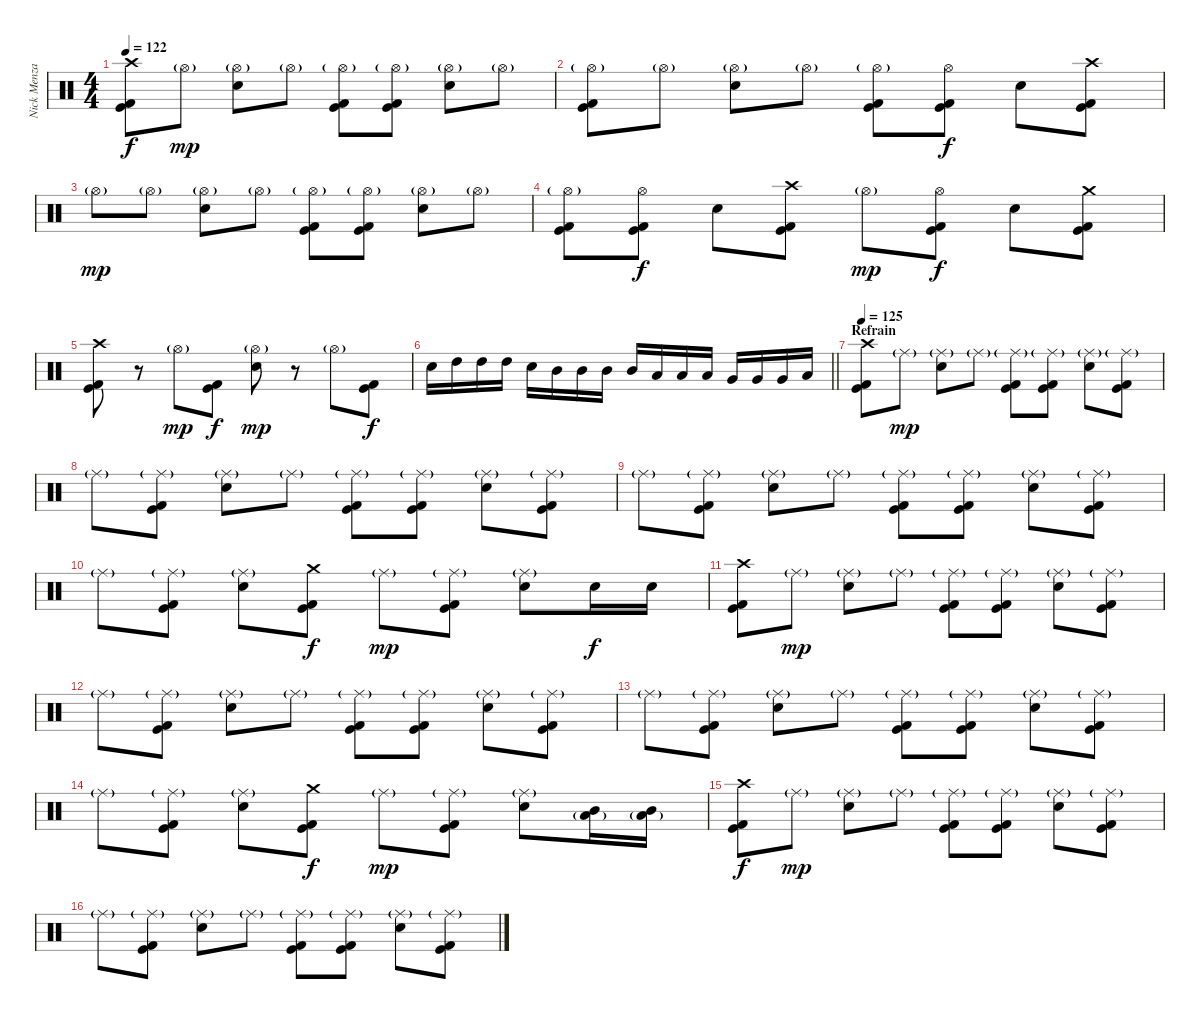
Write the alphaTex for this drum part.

\track ("Nick Menza" "Nick Menza") {instrument percussion}
\staff {score}
\articulation defaults
\ts (4 4)
\tempo 122
\clef neutral
\ks c
("Crash high (hit)" "Kick (hit)" "Kick (hit) 2").8{dy f} "Hi-Hat (open)"{g}.8{dy mp} ("Hi-Hat (open)"{g} "Electric Snare (hit)").8 "Hi-Hat (open)"{g}.8 ("Hi-Hat (open)"{g} "Kick (hit)" "Kick (hit) 2").8 ("Hi-Hat (open)"{g} "Kick (hit)" "Kick (hit) 2").8 ("Hi-Hat (open)"{g} "Electric Snare (hit)").8 "Hi-Hat (open)"{g}.8 |
("Hi-Hat (open)"{g} "Kick (hit)" "Kick (hit) 2").8 "Hi-Hat (open)"{g}.8 ("Hi-Hat (open)"{g} "Electric Snare (hit)").8 "Hi-Hat (open)"{g}.8 ("Hi-Hat (open)"{g} "Kick (hit)" "Kick (hit) 2").8 ("Hi-Hat (open)" "Kick (hit)" "Kick (hit) 2").8{dy f} "Electric Snare (hit)".8 ("Crash high (hit)" "Kick (hit)" "Kick (hit) 2").8 |
"Hi-Hat (open)"{g}.8{dy mp} "Hi-Hat (open)"{g}.8 ("Hi-Hat (open)"{g} "Electric Snare (hit)").8 "Hi-Hat (open)"{g}.8 ("Hi-Hat (open)"{g} "Kick (hit)" "Kick (hit) 2").8 ("Hi-Hat (open)"{g} "Kick (hit)" "Kick (hit) 2").8 ("Hi-Hat (open)"{g} "Electric Snare (hit)").8 "Hi-Hat (open)"{g}.8 |
("Hi-Hat (open)"{g} "Kick (hit)" "Kick (hit) 2").8 ("Hi-Hat (open)" "Kick (hit)" "Kick (hit) 2").8{dy f} "Electric Snare (hit)".8 ("Crash high (hit)" "Kick (hit)" "Kick (hit) 2").8 "Hi-Hat (open)"{g}.8{dy mp} ("Hi-Hat (open)" "Kick (hit)" "Kick (hit) 2").8{dy f} "Electric Snare (hit)".8 ("Crash medium (hit)" "Kick (hit)" "Kick (hit) 2").8 |
("Crash high (hit)" "Kick (hit)" "Kick (hit) 2").8 r.8 "Hi-Hat (open)"{g}.8{dy mp} ("Kick (hit)" "Kick (hit) 2").8{dy f} ("Hi-Hat (open)"{g} "Electric Snare (hit)").8{dy mp} r.8 "Hi-Hat (open)"{g}.8 ("Kick (hit)" "Kick (hit) 2").8{dy f} |
\barLineRight lightlight "Electric Snare (hit)".16 "High Tom (hit)".16 "High Tom (hit)".16 "High Tom (hit)".16 "Electric Snare (hit)".16 "Mid Tom (hit)".16 "Mid Tom (hit)".16 "Mid Tom (hit)".16 "Mid Tom (hit)".16 "Low Tom (hit)".16 "Low Tom (hit)".16 "Low Tom (hit)".16 "Very Low Tom (hit)".16 "Very Low Tom (hit)".16 "Very Low Tom (hit)".16 "Low Floor Tom (hit)".16
|
\section ("" "Refrain")
\tempo 125
("Crash high (hit)" "Kick (hit)" "Kick (hit) 2").8 "Ride (middle)"{g}.8{dy mp} ("Ride (middle)"{g} "Electric Snare (hit)").8 "Ride (middle)"{g}.8 ("Ride (middle)"{g} "Kick (hit)" "Kick (hit) 2").8 ("Ride (middle)"{g} "Kick (hit)" "Kick (hit) 2").8 ("Ride (middle)"{g} "Electric Snare (hit)").8 ("Ride (middle)"{g} "Kick (hit)" "Kick (hit) 2").8 |
"Ride (middle)"{g}.8 ("Ride (middle)"{g} "Kick (hit)" "Kick (hit) 2").8 ("Ride (middle)"{g} "Electric Snare (hit)").8 "Ride (middle)"{g}.8 ("Ride (middle)"{g} "Kick (hit)" "Kick (hit) 2").8 ("Ride (middle)"{g} "Kick (hit)" "Kick (hit) 2").8 ("Ride (middle)"{g} "Electric Snare (hit)").8 ("Ride (middle)"{g} "Kick (hit)" "Kick (hit) 2").8 |
"Ride (middle)"{g}.8 ("Ride (middle)"{g} "Kick (hit)" "Kick (hit) 2").8 ("Ride (middle)"{g} "Electric Snare (hit)").8 "Ride (middle)"{g}.8 ("Ride (middle)"{g} "Kick (hit)" "Kick (hit) 2").8 ("Ride (middle)"{g} "Kick (hit)" "Kick (hit) 2").8 ("Ride (middle)"{g} "Electric Snare (hit)").8 ("Ride (middle)"{g} "Kick (hit)" "Kick (hit) 2").8 |
"Ride (middle)"{g}.8 ("Ride (middle)"{g} "Kick (hit)" "Kick (hit) 2").8 ("Ride (middle)"{g} "Electric Snare (hit)").8 ("Crash medium (hit)" "Kick (hit)" "Kick (hit) 2").8{dy f} "Ride (middle)"{g}.8{dy mp} ("Ride (middle)"{g} "Kick (hit)" "Kick (hit) 2").8 ("Ride (middle)"{g} "Electric Snare (hit)").8 "Electric Snare (hit)".16{dy f} "Electric Snare (hit)".16 |
("Crash high (hit)" "Kick (hit)" "Kick (hit) 2").8 "Ride (middle)"{g}.8{dy mp} ("Ride (middle)"{g} "Electric Snare (hit)").8 "Ride (middle)"{g}.8 ("Ride (middle)"{g} "Kick (hit)" "Kick (hit) 2").8 ("Ride (middle)"{g} "Kick (hit)" "Kick (hit) 2").8 ("Ride (middle)"{g} "Electric Snare (hit)").8 ("Ride (middle)"{g} "Kick (hit)" "Kick (hit) 2").8 |
"Ride (middle)"{g}.8 ("Ride (middle)"{g} "Kick (hit)" "Kick (hit) 2").8 ("Ride (middle)"{g} "Electric Snare (hit)").8 "Ride (middle)"{g}.8 ("Ride (middle)"{g} "Kick (hit)" "Kick (hit) 2").8 ("Ride (middle)"{g} "Kick (hit)" "Kick (hit) 2").8 ("Ride (middle)"{g} "Electric Snare (hit)").8 ("Ride (middle)"{g} "Kick (hit)" "Kick (hit) 2").8 |
"Ride (middle)"{g}.8 ("Ride (middle)"{g} "Kick (hit)" "Kick (hit) 2").8 ("Ride (middle)"{g} "Electric Snare (hit)").8 "Ride (middle)"{g}.8 ("Ride (middle)"{g} "Kick (hit)" "Kick (hit) 2").8 ("Ride (middle)"{g} "Kick (hit)" "Kick (hit) 2").8 ("Ride (middle)"{g} "Electric Snare (hit)").8 ("Ride (middle)"{g} "Kick (hit)" "Kick (hit) 2").8 |
"Ride (middle)"{g}.8 ("Ride (middle)"{g} "Kick (hit)" "Kick (hit) 2").8 ("Ride (middle)"{g} "Electric Snare (hit)").8 ("Crash medium (hit)" "Kick (hit)" "Kick (hit) 2").8{dy f} "Ride (middle)"{g}.8{dy mp} ("Ride (middle)"{g} "Kick (hit)" "Kick (hit) 2").8 ("Ride (middle)"{g} "Electric Snare (hit)").8 ("Mid Tom (hit)" "Low Floor Tom (hit)"{g}).16 ("Mid Tom (hit)" "Low Floor Tom (hit)"{g}).16 |
("Crash high (hit)" "Kick (hit)" "Kick (hit) 2").8{dy f} "Ride (middle)"{g}.8{dy mp} ("Ride (middle)"{g} "Electric Snare (hit)").8 "Ride (middle)"{g}.8 ("Ride (middle)"{g} "Kick (hit)" "Kick (hit) 2").8 ("Ride (middle)"{g} "Kick (hit)" "Kick (hit) 2").8 ("Ride (middle)"{g} "Electric Snare (hit)").8 ("Ride (middle)"{g} "Kick (hit)" "Kick (hit) 2").8 |
"Ride (middle)"{g}.8 ("Ride (middle)"{g} "Kick (hit)" "Kick (hit) 2").8 ("Ride (middle)"{g} "Electric Snare (hit)").8 "Ride (middle)"{g}.8 ("Ride (middle)"{g} "Kick (hit)" "Kick (hit) 2").8 ("Ride (middle)"{g} "Kick (hit)" "Kick (hit) 2").8 ("Ride (middle)"{g} "Electric Snare (hit)").8 ("Ride (middle)"{g} "Kick (hit)" "Kick (hit) 2").8
